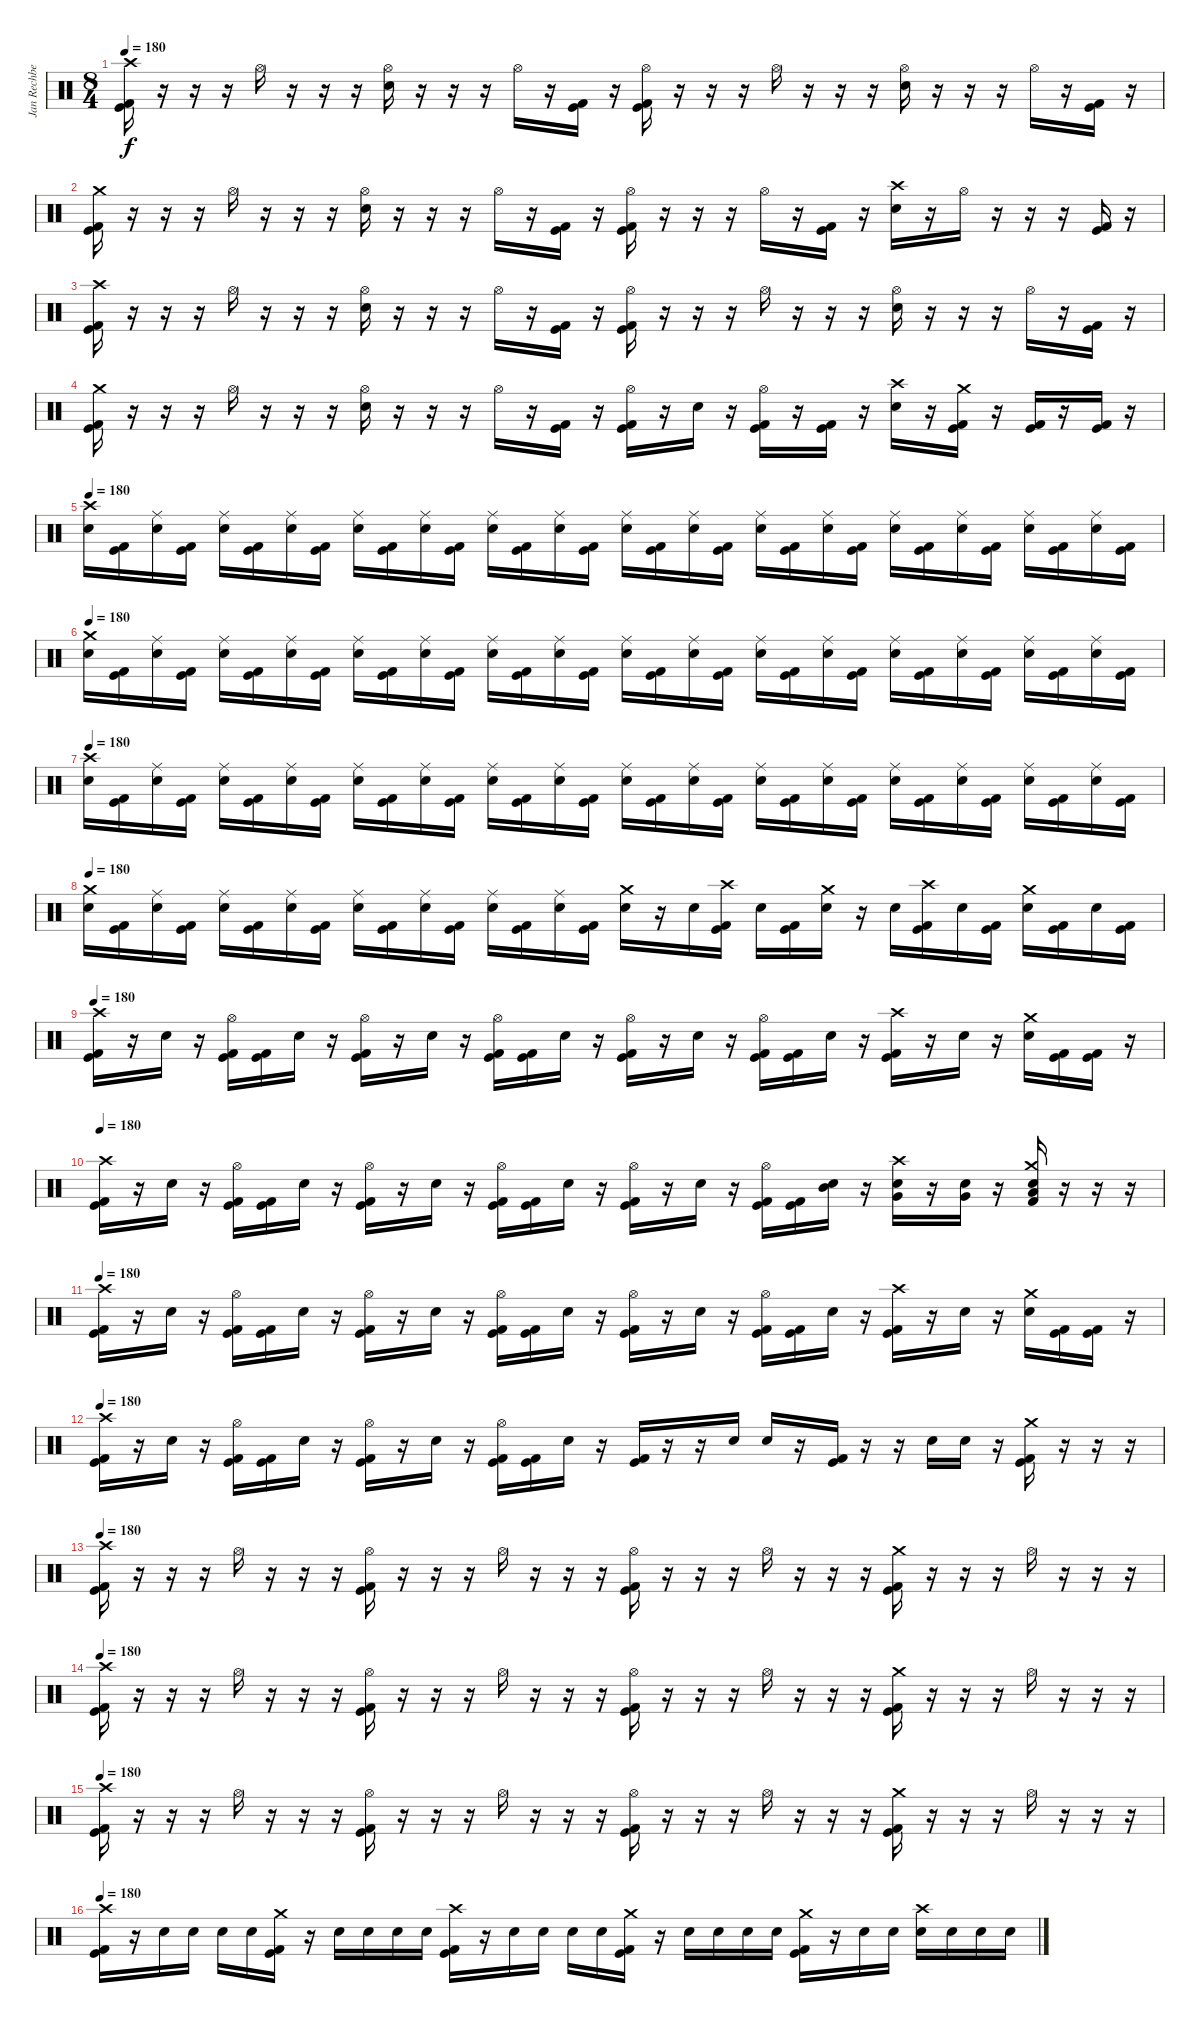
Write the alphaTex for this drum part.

\track ("Jan Rechberger" "Jan Rechbe") {instrument percussion}
\staff {score}
\articulation defaults
\ts (8 4)
\tempo 180
\clef neutral
\ks c
("Crash high (hit)" "Kick (hit) 2" "Kick (hit)").16{dy f} r.16 r.16 r.16 "Hi-Hat (open)".16 r.16 r.16 r.16 ("Hi-Hat (open)" "Electric Snare (hit)").16 r.16 r.16 r.16 "Hi-Hat (open)".16 r.16 ("Kick (hit) 2" "Kick (hit)").16 r.16 ("Hi-Hat (open)" "Kick (hit) 2" "Kick (hit)").16 r.16 r.16 r.16 "Hi-Hat (open)".16 r.16 r.16 r.16 ("Hi-Hat (open)" "Electric Snare (hit)").16 r.16 r.16 r.16 "Hi-Hat (open)".16 r.16 ("Kick (hit) 2" "Kick (hit)").16 r.16 |
("Crash medium (hit)" "Kick (hit) 2" "Kick (hit)").16 r.16 r.16 r.16 "Hi-Hat (open)".16 r.16 r.16 r.16 ("Hi-Hat (open)" "Electric Snare (hit)").16 r.16 r.16 r.16 "Hi-Hat (open)".16 r.16 ("Kick (hit) 2" "Kick (hit)").16 r.16 ("Hi-Hat (open)" "Kick (hit) 2" "Kick (hit)").16 r.16 r.16 r.16 "Hi-Hat (open)".16 r.16 ("Kick (hit) 2" "Kick (hit)").16 r.16 ("Crash high (hit)" "Electric Snare (hit)").16 r.16 "Hi-Hat (open)".16 r.16 r.16 r.16 ("Kick (hit) 2" "Kick (hit)").16 r.16 |
("Crash high (hit)" "Kick (hit) 2" "Kick (hit)").16 r.16 r.16 r.16 "Hi-Hat (open)".16 r.16 r.16 r.16 ("Hi-Hat (open)" "Electric Snare (hit)").16 r.16 r.16 r.16 "Hi-Hat (open)".16 r.16 ("Kick (hit) 2" "Kick (hit)").16 r.16 ("Hi-Hat (open)" "Kick (hit) 2" "Kick (hit)").16 r.16 r.16 r.16 "Hi-Hat (open)".16 r.16 r.16 r.16 ("Hi-Hat (open)" "Electric Snare (hit)").16 r.16 r.16 r.16 "Hi-Hat (open)".16 r.16 ("Kick (hit) 2" "Kick (hit)").16 r.16 |
("Crash medium (hit)" "Kick (hit) 2" "Kick (hit)").16 r.16 r.16 r.16 "Hi-Hat (open)".16 r.16 r.16 r.16 ("Hi-Hat (open)" "Electric Snare (hit)").16 r.16 r.16 r.16 "Hi-Hat (open)".16 r.16 ("Kick (hit) 2" "Kick (hit)").16 r.16 ("Hi-Hat (open)" "Kick (hit) 2" "Kick (hit)").16 r.16 "Electric Snare (hit)".16 r.16 ("Hi-Hat (open)" "Kick (hit)" "Kick (hit) 2").16 r.16 ("Kick (hit) 2" "Kick (hit)").16 r.16 ("Crash high (hit)" "Electric Snare (hit)").16 r.16 ("Crash medium (hit)" "Kick (hit) 2" "Kick (hit)").16 r.16 ("Kick (hit) 2" "Kick (hit)").16 r.16 ("Kick (hit) 2" "Kick (hit)").16 r.16 |
\tempo 180
("Crash high (hit)" "Electric Snare (hit)").16 ("Kick (hit)" "Kick (hit) 2").16 ("Ride (middle)" "Electric Snare (hit)").16 ("Kick (hit) 2" "Kick (hit)").16 ("Ride (middle)" "Electric Snare (hit)").16 ("Kick (hit) 2" "Kick (hit)").16 ("Ride (middle)" "Electric Snare (hit)").16 ("Kick (hit) 2" "Kick (hit)").16 ("Ride (middle)" "Electric Snare (hit)").16 ("Kick (hit) 2" "Kick (hit)").16 ("Ride (middle)" "Electric Snare (hit)").16 ("Kick (hit) 2" "Kick (hit)").16 ("Ride (middle)" "Electric Snare (hit)").16 ("Kick (hit) 2" "Kick (hit)").16 ("Ride (middle)" "Electric Snare (hit)").16 ("Kick (hit) 2" "Kick (hit)").16 ("Ride (middle)" "Electric Snare (hit)").16 ("Kick (hit) 2" "Kick (hit)").16 ("Ride (middle)" "Electric Snare (hit)").16 ("Kick (hit) 2" "Kick (hit)").16 ("Ride (middle)" "Electric Snare (hit)").16 ("Kick (hit) 2" "Kick (hit)").16 ("Ride (middle)" "Electric Snare (hit)").16 ("Kick (hit) 2" "Kick (hit)").16 ("Ride (middle)" "Electric Snare (hit)").16 ("Kick (hit) 2" "Kick (hit)").16 ("Ride (middle)" "Electric Snare (hit)").16 ("Kick (hit) 2" "Kick (hit)").16 ("Ride (middle)" "Electric Snare (hit)").16 ("Kick (hit) 2" "Kick (hit)").16 ("Ride (middle)" "Electric Snare (hit)").16 ("Kick (hit) 2" "Kick (hit)").16 |
\tempo 180
("Crash medium (hit)" "Electric Snare (hit)").16 ("Kick (hit)" "Kick (hit) 2").16 ("Ride (middle)" "Electric Snare (hit)").16 ("Kick (hit) 2" "Kick (hit)").16 ("Ride (middle)" "Electric Snare (hit)").16 ("Kick (hit) 2" "Kick (hit)").16 ("Ride (middle)" "Electric Snare (hit)").16 ("Kick (hit) 2" "Kick (hit)").16 ("Ride (middle)" "Electric Snare (hit)").16 ("Kick (hit) 2" "Kick (hit)").16 ("Ride (middle)" "Electric Snare (hit)").16 ("Kick (hit) 2" "Kick (hit)").16 ("Ride (middle)" "Electric Snare (hit)").16 ("Kick (hit) 2" "Kick (hit)").16 ("Ride (middle)" "Electric Snare (hit)").16 ("Kick (hit) 2" "Kick (hit)").16 ("Ride (middle)" "Electric Snare (hit)").16 ("Kick (hit) 2" "Kick (hit)").16 ("Ride (middle)" "Electric Snare (hit)").16 ("Kick (hit) 2" "Kick (hit)").16 ("Ride (middle)" "Electric Snare (hit)").16 ("Kick (hit) 2" "Kick (hit)").16 ("Ride (middle)" "Electric Snare (hit)").16 ("Kick (hit) 2" "Kick (hit)").16 ("Ride (middle)" "Electric Snare (hit)").16 ("Kick (hit) 2" "Kick (hit)").16 ("Ride (middle)" "Electric Snare (hit)").16 ("Kick (hit) 2" "Kick (hit)").16 ("Ride (middle)" "Electric Snare (hit)").16 ("Kick (hit) 2" "Kick (hit)").16 ("Ride (middle)" "Electric Snare (hit)").16 ("Kick (hit) 2" "Kick (hit)").16 |
\tempo 180
("Crash high (hit)" "Electric Snare (hit)").16 ("Kick (hit)" "Kick (hit) 2").16 ("Ride (middle)" "Electric Snare (hit)").16 ("Kick (hit) 2" "Kick (hit)").16 ("Ride (middle)" "Electric Snare (hit)").16 ("Kick (hit) 2" "Kick (hit)").16 ("Ride (middle)" "Electric Snare (hit)").16 ("Kick (hit) 2" "Kick (hit)").16 ("Ride (middle)" "Electric Snare (hit)").16 ("Kick (hit) 2" "Kick (hit)").16 ("Ride (middle)" "Electric Snare (hit)").16 ("Kick (hit) 2" "Kick (hit)").16 ("Ride (middle)" "Electric Snare (hit)").16 ("Kick (hit) 2" "Kick (hit)").16 ("Ride (middle)" "Electric Snare (hit)").16 ("Kick (hit) 2" "Kick (hit)").16 ("Ride (middle)" "Electric Snare (hit)").16 ("Kick (hit) 2" "Kick (hit)").16 ("Ride (middle)" "Electric Snare (hit)").16 ("Kick (hit) 2" "Kick (hit)").16 ("Ride (middle)" "Electric Snare (hit)").16 ("Kick (hit) 2" "Kick (hit)").16 ("Ride (middle)" "Electric Snare (hit)").16 ("Kick (hit) 2" "Kick (hit)").16 ("Ride (middle)" "Electric Snare (hit)").16 ("Kick (hit) 2" "Kick (hit)").16 ("Ride (middle)" "Electric Snare (hit)").16 ("Kick (hit) 2" "Kick (hit)").16 ("Ride (middle)" "Electric Snare (hit)").16 ("Kick (hit) 2" "Kick (hit)").16 ("Ride (middle)" "Electric Snare (hit)").16 ("Kick (hit) 2" "Kick (hit)").16 |
\tempo 180
("Crash medium (hit)" "Electric Snare (hit)").16 ("Kick (hit)" "Kick (hit) 2").16 ("Ride (middle)" "Electric Snare (hit)").16 ("Kick (hit) 2" "Kick (hit)").16 ("Ride (middle)" "Electric Snare (hit)").16 ("Kick (hit) 2" "Kick (hit)").16 ("Ride (middle)" "Electric Snare (hit)").16 ("Kick (hit) 2" "Kick (hit)").16 ("Ride (middle)" "Electric Snare (hit)").16 ("Kick (hit) 2" "Kick (hit)").16 ("Ride (middle)" "Electric Snare (hit)").16 ("Kick (hit) 2" "Kick (hit)").16 ("Ride (middle)" "Electric Snare (hit)").16 ("Kick (hit) 2" "Kick (hit)").16 ("Ride (middle)" "Electric Snare (hit)").16 ("Kick (hit) 2" "Kick (hit)").16 ("Crash medium (hit)" "Electric Snare (hit)").16 r.16 "Electric Snare (hit)".16 ("Crash high (hit)" "Kick (hit) 2" "Kick (hit)").16 "Electric Snare (hit)".16 ("Kick (hit) 2" "Kick (hit)").16 ("Crash medium (hit)" "Electric Snare (hit)").16 r.16 "Electric Snare (hit)".16 ("Crash high (hit)" "Kick (hit) 2" "Kick (hit)").16 "Electric Snare (hit)".16 ("Kick (hit) 2" "Kick (hit)").16 ("Crash medium (hit)" "Electric Snare (hit)").16 ("Kick (hit) 2" "Kick (hit)").16 "Electric Snare (hit)".16 ("Kick (hit) 2" "Kick (hit)").16 |
\tempo 180
("Crash high (hit)" "Kick (hit) 2" "Kick (hit)").16 r.16 "Electric Snare (hit)".16 r.16 ("Hi-Hat (open)" "Kick (hit) 2" "Kick (hit)").16 ("Kick (hit) 2" "Kick (hit)").16 "Electric Snare (hit)".16 r.16 ("Hi-Hat (open)" "Kick (hit) 2" "Kick (hit)").16 r.16 "Electric Snare (hit)".16 r.16 ("Hi-Hat (open)" "Kick (hit) 2" "Kick (hit)").16 ("Kick (hit) 2" "Kick (hit)").16 "Electric Snare (hit)".16 r.16 ("Hi-Hat (open)" "Kick (hit) 2" "Kick (hit)").16 r.16 "Electric Snare (hit)".16 r.16 ("Hi-Hat (open)" "Kick (hit) 2" "Kick (hit)").16 ("Kick (hit) 2" "Kick (hit)").16 "Electric Snare (hit)".16 r.16 ("Crash high (hit)" "Kick (hit) 2" "Kick (hit)").16 r.16 "Electric Snare (hit)".16 r.16 ("Crash medium (hit)" "Electric Snare (hit)").16 ("Kick (hit) 2" "Kick (hit)").16 ("Kick (hit)" "Kick (hit) 2").16 r.16 |
\tempo 180
("Crash high (hit)" "Kick (hit) 2" "Kick (hit)").16 r.16 "Electric Snare (hit)".16 r.16 ("Hi-Hat (open)" "Kick (hit) 2" "Kick (hit)").16 ("Kick (hit) 2" "Kick (hit)").16 "Electric Snare (hit)".16 r.16 ("Hi-Hat (open)" "Kick (hit) 2" "Kick (hit)").16 r.16 "Electric Snare (hit)".16 r.16 ("Hi-Hat (open)" "Kick (hit) 2" "Kick (hit)").16 ("Kick (hit) 2" "Kick (hit)").16 "Electric Snare (hit)".16 r.16 ("Hi-Hat (open)" "Kick (hit) 2" "Kick (hit)").16 r.16 "Electric Snare (hit)".16 r.16 ("Hi-Hat (open)" "Kick (hit) 2" "Kick (hit)").16 ("Kick (hit) 2" "Kick (hit)").16 ("Mid Tom (hit)" "Electric Snare (hit)").16 r.16 ("Crash high (hit)" "Very Low Tom (hit)" "Electric Snare (hit)").16 r.16 ("Very Low Tom (hit)" "Electric Snare (hit)").16 r.16 ("Crash medium (hit)" "Low Floor Tom (hit)" "Electric Snare (hit)" "Kick (hit) 2").16 r.16 r.16 r.16 |
\tempo 180
("Crash high (hit)" "Kick (hit) 2" "Kick (hit)").16 r.16 "Electric Snare (hit)".16 r.16 ("Hi-Hat (open)" "Kick (hit) 2" "Kick (hit)").16 ("Kick (hit) 2" "Kick (hit)").16 "Electric Snare (hit)".16 r.16 ("Hi-Hat (open)" "Kick (hit) 2" "Kick (hit)").16 r.16 "Electric Snare (hit)".16 r.16 ("Hi-Hat (open)" "Kick (hit) 2" "Kick (hit)").16 ("Kick (hit) 2" "Kick (hit)").16 "Electric Snare (hit)".16 r.16 ("Hi-Hat (open)" "Kick (hit) 2" "Kick (hit)").16 r.16 "Electric Snare (hit)".16 r.16 ("Hi-Hat (open)" "Kick (hit) 2" "Kick (hit)").16 ("Kick (hit) 2" "Kick (hit)").16 "Electric Snare (hit)".16 r.16 ("Crash high (hit)" "Kick (hit) 2" "Kick (hit)").16 r.16 "Electric Snare (hit)".16 r.16 ("Crash medium (hit)" "Electric Snare (hit)").16 ("Kick (hit) 2" "Kick (hit)").16 ("Kick (hit)" "Kick (hit) 2").16 r.16 |
\tempo 180
("Crash high (hit)" "Kick (hit) 2" "Kick (hit)").16 r.16 "Electric Snare (hit)".16 r.16 ("Hi-Hat (open)" "Kick (hit) 2" "Kick (hit)").16 ("Kick (hit) 2" "Kick (hit)").16 "Electric Snare (hit)".16 r.16 ("Hi-Hat (open)" "Kick (hit) 2" "Kick (hit)").16 r.16 "Electric Snare (hit)".16 r.16 ("Hi-Hat (open)" "Kick (hit) 2" "Kick (hit)").16 ("Kick (hit) 2" "Kick (hit)").16 "Electric Snare (hit)".16 r.16 ("Kick (hit) 2" "Kick (hit)").16 r.16 r.16 "Electric Snare (hit)".16 "Electric Snare (hit)".16 r.16 ("Kick (hit) 2" "Kick (hit)").16 r.16 r.16 "Electric Snare (hit)".16 "Electric Snare (hit)".16 r.16 ("Crash medium (hit)" "Kick (hit) 2" "Kick (hit)").16 r.16 r.16 r.16 |
\tempo 180
("Crash high (hit)" "Kick (hit) 2" "Kick (hit)").16 r.16 r.16 r.16 "Hi-Hat (open)".16 r.16 r.16 r.16 ("Hi-Hat (open)" "Kick (hit) 2" "Kick (hit)").16 r.16 r.16 r.16 "Hi-Hat (open)".16 r.16 r.16 r.16 ("Hi-Hat (open)" "Kick (hit) 2" "Kick (hit)").16 r.16 r.16 r.16 "Hi-Hat (open)".16 r.16 r.16 r.16 ("Crash medium (hit)" "Kick (hit) 2" "Kick (hit)").16 r.16 r.16 r.16 "Hi-Hat (open)".16 r.16 r.16 r.16 |
\tempo 180
("Crash high (hit)" "Kick (hit) 2" "Kick (hit)").16 r.16 r.16 r.16 "Hi-Hat (open)".16 r.16 r.16 r.16 ("Hi-Hat (open)" "Kick (hit) 2" "Kick (hit)").16 r.16 r.16 r.16 "Hi-Hat (open)".16 r.16 r.16 r.16 ("Hi-Hat (open)" "Kick (hit) 2" "Kick (hit)").16 r.16 r.16 r.16 "Hi-Hat (open)".16 r.16 r.16 r.16 ("Crash medium (hit)" "Kick (hit) 2" "Kick (hit)").16 r.16 r.16 r.16 "Hi-Hat (open)".16 r.16 r.16 r.16 |
\tempo 180
("Crash high (hit)" "Kick (hit) 2" "Kick (hit)").16 r.16 r.16 r.16 "Hi-Hat (open)".16 r.16 r.16 r.16 ("Hi-Hat (open)" "Kick (hit) 2" "Kick (hit)").16 r.16 r.16 r.16 "Hi-Hat (open)".16 r.16 r.16 r.16 ("Hi-Hat (open)" "Kick (hit) 2" "Kick (hit)").16 r.16 r.16 r.16 "Hi-Hat (open)".16 r.16 r.16 r.16 ("Crash medium (hit)" "Kick (hit) 2" "Kick (hit)").16 r.16 r.16 r.16 "Hi-Hat (open)".16 r.16 r.16 r.16 |
\tempo 180
("Crash high (hit)" "Kick (hit) 2" "Kick (hit)").16 r.16 "Electric Snare (hit)".16 "Electric Snare (hit)".16 "Electric Snare (hit)".16 "Electric Snare (hit)".16 ("Crash medium (hit)" "Kick (hit) 2" "Kick (hit)").16 r.16 "Electric Snare (hit)".16 "Electric Snare (hit)".16 "Electric Snare (hit)".16 "Electric Snare (hit)".16 ("Crash high (hit)" "Kick (hit) 2" "Kick (hit)").16 r.16 "Electric Snare (hit)".16 "Electric Snare (hit)".16 "Electric Snare (hit)".16 "Electric Snare (hit)".16 ("Crash medium (hit)" "Kick (hit) 2" "Kick (hit)").16 r.16 "Electric Snare (hit)".16 "Electric Snare (hit)".16 "Electric Snare (hit)".16 "Electric Snare (hit)".16 ("Crash medium (hit)" "Kick (hit) 2" "Kick (hit)").16 r.16 "Electric Snare (hit)".16 "Electric Snare (hit)".16 ("Crash high (hit)" "Electric Snare (hit)").16 "Electric Snare (hit)".16 "Electric Snare (hit)".16 "Electric Snare (hit)".16
